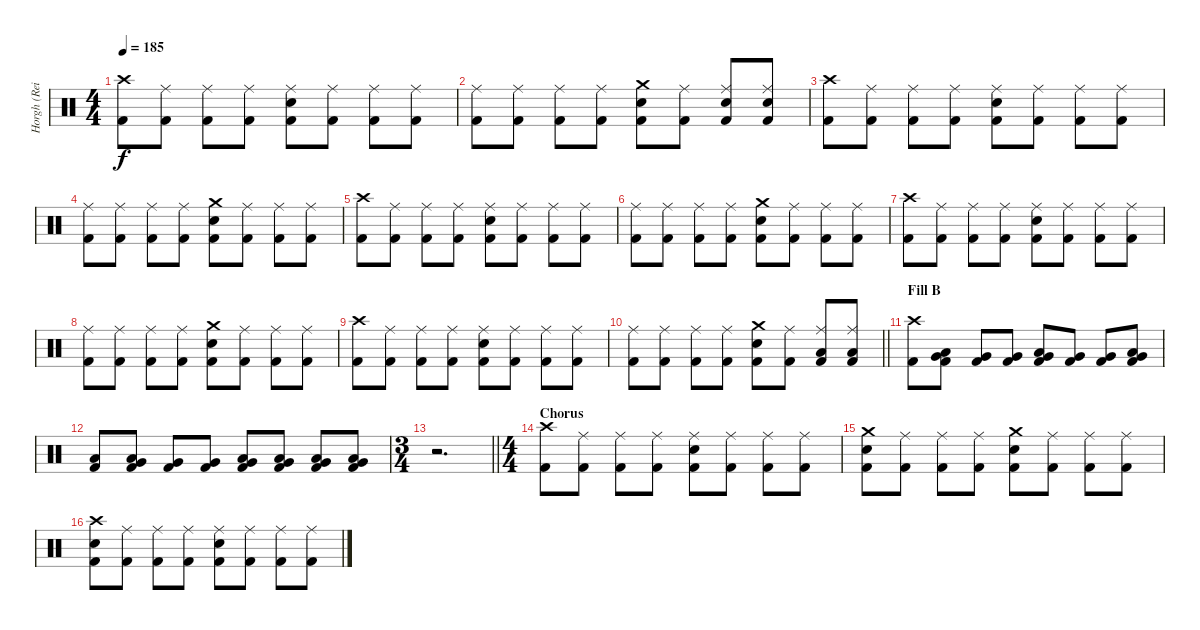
\track ("Horgh (Reidar Horghagen)" "Horgh (Rei") {instrument percussion}
\staff {score}
\articulation defaults
\ts (4 4)
\tempo 185
\clef neutral
\ks c
("Crash high (hit)" "Kick (hit) 2").8{dy f} ("Ride (middle)" "Kick (hit) 2").8 ("Ride (middle)" "Kick (hit) 2").8 ("Ride (middle)" "Kick (hit) 2").8 ("Ride (middle)" "Snare (hit) 2" "Kick (hit) 2").8 ("Ride (middle)" "Kick (hit) 2").8 ("Ride (middle)" "Kick (hit) 2").8 ("Ride (middle)" "Kick (hit) 2").8 |
("Ride (middle)" "Kick (hit) 2").8 ("Ride (middle)" "Kick (hit) 2").8 ("Ride (middle)" "Kick (hit) 2").8 ("Ride (middle)" "Kick (hit) 2").8 ("Crash medium (hit)" "Snare (hit) 2" "Kick (hit) 2").8 ("Ride (middle)" "Kick (hit) 2").8 ("Ride (middle)" "Snare (hit) 2" "Kick (hit) 2").8 ("Ride (middle)" "Snare (hit) 2" "Kick (hit) 2").8 |
("Crash high (hit)" "Kick (hit) 2").8 ("Ride (middle)" "Kick (hit) 2").8 ("Ride (middle)" "Kick (hit) 2").8 ("Ride (middle)" "Kick (hit) 2").8 ("Ride (middle)" "Snare (hit) 2" "Kick (hit) 2").8 ("Ride (middle)" "Kick (hit) 2").8 ("Ride (middle)" "Kick (hit) 2").8 ("Ride (middle)" "Kick (hit) 2").8 |
("Ride (middle)" "Kick (hit) 2").8 ("Ride (middle)" "Kick (hit) 2").8 ("Ride (middle)" "Kick (hit) 2").8 ("Ride (middle)" "Kick (hit) 2").8 ("Crash medium (hit)" "Snare (hit) 2" "Kick (hit) 2").8 ("Ride (middle)" "Kick (hit) 2").8 ("Ride (middle)" "Kick (hit) 2").8 ("Ride (middle)" "Kick (hit) 2").8 |
("Crash high (hit)" "Kick (hit) 2").8 ("Ride (middle)" "Kick (hit) 2").8 ("Ride (middle)" "Kick (hit) 2").8 ("Ride (middle)" "Kick (hit) 2").8 ("Ride (middle)" "Snare (hit) 2" "Kick (hit) 2").8 ("Ride (middle)" "Kick (hit) 2").8 ("Ride (middle)" "Kick (hit) 2").8 ("Ride (middle)" "Kick (hit) 2").8 |
("Ride (middle)" "Kick (hit) 2").8 ("Ride (middle)" "Kick (hit) 2").8 ("Ride (middle)" "Kick (hit) 2").8 ("Ride (middle)" "Kick (hit) 2").8 ("Crash medium (hit)" "Snare (hit) 2" "Kick (hit) 2").8 ("Ride (middle)" "Kick (hit) 2").8 ("Ride (middle)" "Kick (hit) 2").8 ("Ride (middle)" "Kick (hit) 2").8 |
("Crash high (hit)" "Kick (hit) 2").8 ("Ride (middle)" "Kick (hit) 2").8 ("Ride (middle)" "Kick (hit) 2").8 ("Ride (middle)" "Kick (hit) 2").8 ("Ride (middle)" "Snare (hit) 2" "Kick (hit) 2").8 ("Ride (middle)" "Kick (hit) 2").8 ("Ride (middle)" "Kick (hit) 2").8 ("Ride (middle)" "Kick (hit) 2").8 |
("Ride (middle)" "Kick (hit) 2").8 ("Ride (middle)" "Kick (hit) 2").8 ("Ride (middle)" "Kick (hit) 2").8 ("Ride (middle)" "Kick (hit) 2").8 ("Crash medium (hit)" "Snare (hit) 2" "Kick (hit) 2").8 ("Ride (middle)" "Kick (hit) 2").8 ("Ride (middle)" "Kick (hit) 2").8 ("Ride (middle)" "Kick (hit) 2").8 |
("Crash high (hit)" "Kick (hit) 2").8 ("Ride (middle)" "Kick (hit) 2").8 ("Ride (middle)" "Kick (hit) 2").8 ("Ride (middle)" "Kick (hit) 2").8 ("Ride (middle)" "Snare (hit) 2" "Kick (hit) 2").8 ("Ride (middle)" "Kick (hit) 2").8 ("Ride (middle)" "Kick (hit) 2").8 ("Ride (middle)" "Kick (hit) 2").8 |
\barLineRight lightlight
("Ride (middle)" "Kick (hit) 2").8 ("Ride (middle)" "Kick (hit) 2").8 ("Ride (middle)" "Kick (hit) 2").8 ("Ride (middle)" "Kick (hit) 2").8 ("Crash medium (hit)" "Snare (hit) 2" "Kick (hit) 2").8 ("Ride (middle)" "Kick (hit) 2").8 ("Ride (middle)" "Low Floor Tom (hit)" "Kick (hit) 2").8 ("Ride (middle)" "Low Floor Tom (hit)" "Kick (hit) 2").8 |
\section ("" "Fill B")
("Crash high (hit)" "Kick (hit) 2").8 ("Very Low Tom (hit)" "Low Floor Tom (hit)" "Kick (hit) 2").8 ("Very Low Tom (hit)" "Kick (hit) 2").8 ("Very Low Tom (hit)" "Kick (hit) 2").8 ("Very Low Tom (hit)" "Low Floor Tom (hit)" "Kick (hit) 2").8 ("Very Low Tom (hit)" "Kick (hit) 2").8 ("Very Low Tom (hit)" "Kick (hit) 2").8 ("Very Low Tom (hit)" "Low Floor Tom (hit)" "Kick (hit) 2").8 |
("Low Floor Tom (hit)" "Kick (hit) 2").8 ("Very Low Tom (hit)" "Low Floor Tom (hit)" "Kick (hit) 2").8 ("Very Low Tom (hit)" "Kick (hit) 2").8 ("Very Low Tom (hit)" "Kick (hit) 2").8 ("Very Low Tom (hit)" "Low Floor Tom (hit)" "Kick (hit) 2").8 ("Very Low Tom (hit)" "Low Floor Tom (hit)" "Kick (hit) 2").8 ("Very Low Tom (hit)" "Low Floor Tom (hit)" "Kick (hit) 2").8 ("Very Low Tom (hit)" "Low Floor Tom (hit)" "Kick (hit) 2").8 |
\ts (3 4)
\barLineRight lightlight
r.2{d} |
\ts (4 4)
\section ("" "Chorus")
("Crash high (hit)" "Kick (hit) 2").8 ("Ride (middle)" "Kick (hit) 2").8 ("Ride (middle)" "Kick (hit) 2").8 ("Ride (middle)" "Kick (hit) 2").8 ("Ride (middle)" "Snare (hit) 2" "Kick (hit) 2").8 ("Ride (middle)" "Kick (hit) 2").8 ("Ride (middle)" "Kick (hit) 2").8 ("Ride (middle)" "Kick (hit) 2").8 |
("Crash medium (hit)" "Snare (hit) 2" "Kick (hit) 2").8 ("Ride (middle)" "Kick (hit) 2").8 ("Ride (middle)" "Kick (hit) 2").8 ("Ride (middle)" "Kick (hit) 2").8 ("Crash medium (hit)" "Snare (hit) 2" "Kick (hit) 2").8 ("Ride (middle)" "Kick (hit) 2").8 ("Ride (middle)" "Kick (hit) 2").8 ("Ride (middle)" "Kick (hit) 2").8 |
("Crash high (hit)" "Snare (hit) 2" "Kick (hit) 2").8 ("Ride (middle)" "Kick (hit) 2").8 ("Ride (middle)" "Kick (hit) 2").8 ("Ride (middle)" "Kick (hit) 2").8 ("Ride (middle)" "Snare (hit) 2" "Kick (hit) 2").8 ("Ride (middle)" "Kick (hit) 2").8 ("Ride (middle)" "Kick (hit) 2").8 ("Ride (middle)" "Kick (hit) 2").8
